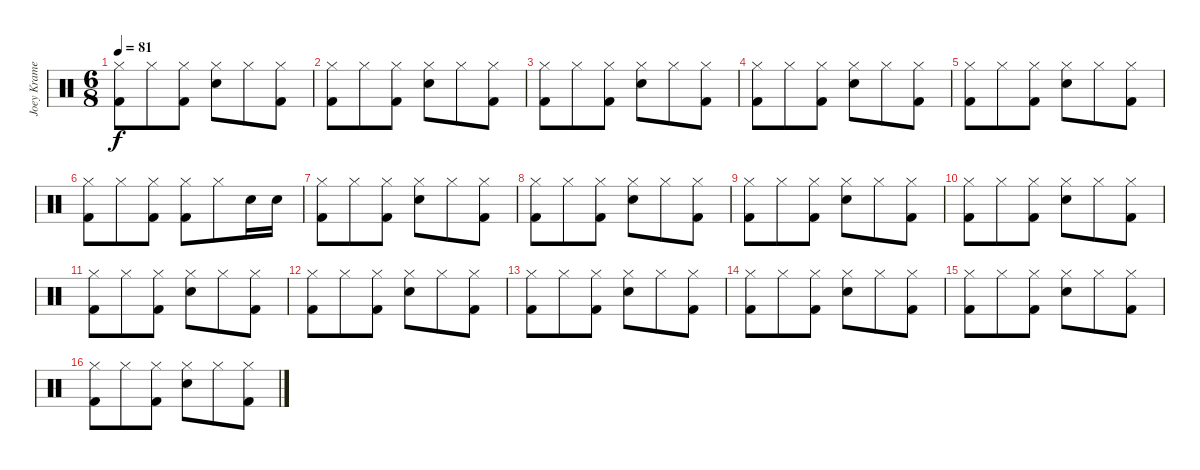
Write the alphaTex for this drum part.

\track ("Joey Kramer" "Joey Krame") {instrument percussion}
\staff {score}
\articulation defaults
\ts (6 8)
\tempo 81
\clef neutral
\ks c
("Hi-Hat (closed)" "Kick (hit) 2").8{dy f} "Hi-Hat (closed)".8 ("Hi-Hat (closed)" "Kick (hit) 2").8 ("Hi-Hat (closed)" "Snare (hit) 2").8 "Hi-Hat (closed)".8 ("Hi-Hat (closed)" "Kick (hit) 2").8 |
("Hi-Hat (closed)" "Kick (hit) 2").8 "Hi-Hat (closed)".8 ("Hi-Hat (closed)" "Kick (hit) 2").8 ("Hi-Hat (closed)" "Snare (hit) 2").8 "Hi-Hat (closed)".8 ("Hi-Hat (closed)" "Kick (hit) 2").8 |
("Hi-Hat (closed)" "Kick (hit) 2").8 "Hi-Hat (closed)".8 ("Hi-Hat (closed)" "Kick (hit) 2").8 ("Hi-Hat (closed)" "Snare (hit) 2").8 "Hi-Hat (closed)".8 ("Hi-Hat (closed)" "Kick (hit) 2").8 |
("Hi-Hat (closed)" "Kick (hit) 2").8 "Hi-Hat (closed)".8 ("Hi-Hat (closed)" "Kick (hit) 2").8 ("Hi-Hat (closed)" "Snare (hit) 2").8 "Hi-Hat (closed)".8 ("Hi-Hat (closed)" "Kick (hit) 2").8 |
("Hi-Hat (closed)" "Kick (hit) 2").8 "Hi-Hat (closed)".8 ("Hi-Hat (closed)" "Kick (hit) 2").8 ("Hi-Hat (closed)" "Snare (hit) 2").8 "Hi-Hat (closed)".8 ("Hi-Hat (closed)" "Kick (hit) 2").8 |
("Hi-Hat (closed)" "Kick (hit) 2").8 "Hi-Hat (closed)".8 ("Hi-Hat (closed)" "Kick (hit) 2").8 ("Hi-Hat (closed)" "Kick (hit) 2").8 "Hi-Hat (closed)".8 "Snare (hit) 2".16 "Snare (hit) 2".16 |
("Hi-Hat (closed)" "Kick (hit) 2").8 "Hi-Hat (closed)".8 ("Hi-Hat (closed)" "Kick (hit) 2").8 ("Hi-Hat (closed)" "Snare (hit) 2").8 "Hi-Hat (closed)".8 ("Hi-Hat (closed)" "Kick (hit) 2").8 |
("Hi-Hat (closed)" "Kick (hit) 2").8 "Hi-Hat (closed)".8 ("Hi-Hat (closed)" "Kick (hit) 2").8 ("Hi-Hat (closed)" "Snare (hit) 2").8 "Hi-Hat (closed)".8 ("Hi-Hat (closed)" "Kick (hit) 2").8 |
("Hi-Hat (closed)" "Kick (hit) 2").8 "Hi-Hat (closed)".8 ("Hi-Hat (closed)" "Kick (hit) 2").8 ("Hi-Hat (closed)" "Snare (hit) 2").8 "Hi-Hat (closed)".8 ("Hi-Hat (closed)" "Kick (hit) 2").8 |
("Hi-Hat (closed)" "Kick (hit) 2").8 "Hi-Hat (closed)".8 ("Hi-Hat (closed)" "Kick (hit) 2").8 ("Hi-Hat (closed)" "Snare (hit) 2").8 "Hi-Hat (closed)".8 ("Hi-Hat (closed)" "Kick (hit) 2").8 |
("Hi-Hat (closed)" "Kick (hit) 2").8 "Hi-Hat (closed)".8 ("Hi-Hat (closed)" "Kick (hit) 2").8 ("Hi-Hat (closed)" "Snare (hit) 2").8 "Hi-Hat (closed)".8 ("Hi-Hat (closed)" "Kick (hit) 2").8 |
("Hi-Hat (closed)" "Kick (hit) 2").8 "Hi-Hat (closed)".8 ("Hi-Hat (closed)" "Kick (hit) 2").8 ("Hi-Hat (closed)" "Snare (hit) 2").8 "Hi-Hat (closed)".8 ("Hi-Hat (closed)" "Kick (hit) 2").8 |
("Hi-Hat (closed)" "Kick (hit) 2").8 "Hi-Hat (closed)".8 ("Hi-Hat (closed)" "Kick (hit) 2").8 ("Hi-Hat (closed)" "Snare (hit) 2").8 "Hi-Hat (closed)".8 ("Hi-Hat (closed)" "Kick (hit) 2").8 |
("Hi-Hat (closed)" "Kick (hit) 2").8 "Hi-Hat (closed)".8 ("Hi-Hat (closed)" "Kick (hit) 2").8 ("Hi-Hat (closed)" "Snare (hit) 2").8 "Hi-Hat (closed)".8 ("Hi-Hat (closed)" "Kick (hit) 2").8 |
("Hi-Hat (closed)" "Kick (hit) 2").8 "Hi-Hat (closed)".8 ("Hi-Hat (closed)" "Kick (hit) 2").8 ("Hi-Hat (closed)" "Snare (hit) 2").8 "Hi-Hat (closed)".8 ("Hi-Hat (closed)" "Kick (hit) 2").8 |
("Hi-Hat (closed)" "Kick (hit) 2").8 "Hi-Hat (closed)".8 ("Hi-Hat (closed)" "Kick (hit) 2").8 ("Hi-Hat (closed)" "Snare (hit) 2").8 "Hi-Hat (closed)".8 ("Hi-Hat (closed)" "Kick (hit) 2").8
